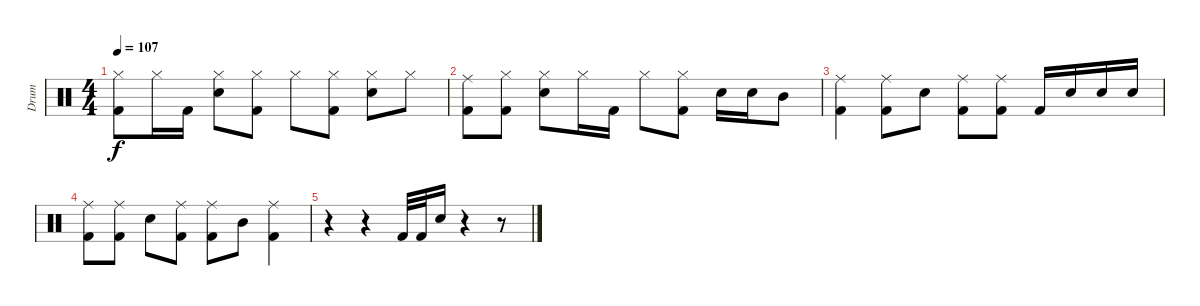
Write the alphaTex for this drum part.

\track ("Drum" "Drum") {instrument percussion}
\staff {score}
\articulation defaults
\ts (4 4)
\tempo 107
\clef neutral
\ks c
("Hi-Hat (closed)" "Kick (hit) 2").8{dy f} "Hi-Hat (closed)".16 "Kick (hit) 2".16 ("Hi-Hat (closed)" "Snare (hit) 2").8 ("Hi-Hat (closed)" "Kick (hit) 2").8 "Hi-Hat (closed)".8 ("Hi-Hat (closed)" "Kick (hit) 2").8 ("Hi-Hat (closed)" "Snare (hit) 2").8 "Hi-Hat (closed)".8 |
("Ride (middle)" "Kick (hit) 2").8 ("Hi-Hat (closed)" "Kick (hit) 2").8 ("Hi-Hat (closed)" "Snare (hit) 2").8 "Hi-Hat (closed)".16 "Kick (hit) 2".16 "Hi-Hat (closed)".8 ("Hi-Hat (closed)" "Kick (hit) 2").8 "Snare (hit) 2".16 "Snare (hit) 2".16 "Mid Tom (hit)".8 |
("Ride (middle)" "Kick (hit) 2").4 ("Ride (middle)" "Kick (hit) 2").8 "Snare (hit) 2".8 ("Ride (middle)" "Kick (hit) 2").8 ("Ride (middle)" "Kick (hit) 2").8 "Kick (hit) 2".16 "Snare (hit) 2".16 "Snare (hit) 2".16 "Snare (hit) 2".16 |
("Ride (middle)" "Kick (hit) 2").8 ("Ride (middle)" "Kick (hit) 2").8 "Snare (hit) 2".8 ("Ride (middle)" "Kick (hit) 2").8 ("Ride (middle)" "Kick (hit) 2").8 "Mid Tom (hit)".8 ("Ride (middle)" "Kick (hit) 2").4 |
r.4 r.4 "Kick (hit) 2".32 "Kick (hit) 2".32 "Snare (hit) 2".16 r.4 r.8
